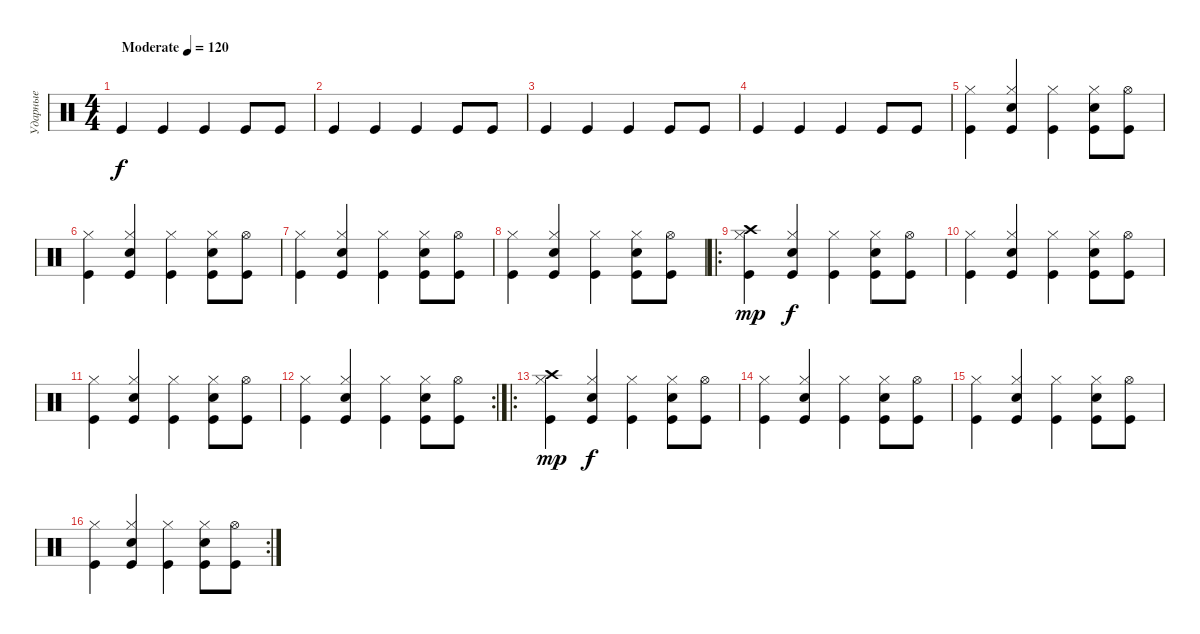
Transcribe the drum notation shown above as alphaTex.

\track ("Ударные" "Ударные") {instrument percussion}
\staff
\articulation defaults
\ts (4 4)
\tempo (120 "Moderate")
\clef neutral
\ks c "Kick (hit)".4{dy f} "Kick (hit)".4 "Kick (hit)".4 "Kick (hit)".8 "Kick (hit)".8
|
"Kick (hit)".4 "Kick (hit)".4 "Kick (hit)".4 "Kick (hit)".8 "Kick (hit)".8 |
"Kick (hit)".4 "Kick (hit)".4 "Kick (hit)".4 "Kick (hit)".8 "Kick (hit)".8 |
"Kick (hit)".4 "Kick (hit)".4 "Kick (hit)".4 "Kick (hit)".8 "Kick (hit)".8 |
("Hi-Hat (closed)" "Kick (hit)").4 ("Hi-Hat (closed)" "Snare (hit) 2" "Kick (hit)").4 ("Hi-Hat (closed)" "Kick (hit)").4 ("Hi-Hat (closed)" "Snare (hit) 2" "Kick (hit)").8 ("Hi-Hat (open)" "Kick (hit)").8 |
("Hi-Hat (closed)" "Kick (hit)").4 ("Hi-Hat (closed)" "Snare (hit) 2" "Kick (hit)").4 ("Hi-Hat (closed)" "Kick (hit)").4 ("Hi-Hat (closed)" "Snare (hit) 2" "Kick (hit)").8 ("Hi-Hat (open)" "Kick (hit)").8 |
("Hi-Hat (closed)" "Kick (hit)").4 ("Hi-Hat (closed)" "Snare (hit) 2" "Kick (hit)").4 ("Hi-Hat (closed)" "Kick (hit)").4 ("Hi-Hat (closed)" "Snare (hit) 2" "Kick (hit)").8 ("Hi-Hat (open)" "Kick (hit)").8 |
("Hi-Hat (closed)" "Kick (hit)").4 ("Hi-Hat (closed)" "Snare (hit) 2" "Kick (hit)").4 ("Hi-Hat (closed)" "Kick (hit)").4 ("Hi-Hat (closed)" "Snare (hit) 2" "Kick (hit)").8 ("Hi-Hat (open)" "Kick (hit)").8 |
\ro
("Crash high (hit)" "Hi-Hat (closed)" "Kick (hit)").4{dy mp} ("Hi-Hat (closed)" "Snare (hit) 2" "Kick (hit)").4{dy f} ("Hi-Hat (closed)" "Kick (hit)").4 ("Hi-Hat (closed)" "Snare (hit) 2" "Kick (hit)").8 ("Hi-Hat (open)" "Kick (hit)").8 |
("Hi-Hat (closed)" "Kick (hit)").4 ("Hi-Hat (closed)" "Snare (hit) 2" "Kick (hit)").4 ("Hi-Hat (closed)" "Kick (hit)").4 ("Hi-Hat (closed)" "Snare (hit) 2" "Kick (hit)").8 ("Hi-Hat (open)" "Kick (hit)").8 |
("Hi-Hat (closed)" "Kick (hit)").4 ("Hi-Hat (closed)" "Snare (hit) 2" "Kick (hit)").4 ("Hi-Hat (closed)" "Kick (hit)").4 ("Hi-Hat (closed)" "Snare (hit) 2" "Kick (hit)").8 ("Hi-Hat (open)" "Kick (hit)").8 |
\rc 2
("Hi-Hat (closed)" "Kick (hit)").4 ("Hi-Hat (closed)" "Snare (hit) 2" "Kick (hit)").4 ("Hi-Hat (closed)" "Kick (hit)").4 ("Hi-Hat (closed)" "Snare (hit) 2" "Kick (hit)").8 ("Hi-Hat (open)" "Kick (hit)").8 |
\ro
("Crash high (hit)" "Hi-Hat (closed)" "Kick (hit)").4{dy mp} ("Hi-Hat (closed)" "Snare (hit) 2" "Kick (hit)").4{dy f} ("Hi-Hat (closed)" "Kick (hit)").4 ("Hi-Hat (closed)" "Snare (hit) 2" "Kick (hit)").8 ("Hi-Hat (open)" "Kick (hit)").8 |
("Hi-Hat (closed)" "Kick (hit)").4 ("Hi-Hat (closed)" "Snare (hit) 2" "Kick (hit)").4 ("Hi-Hat (closed)" "Kick (hit)").4 ("Hi-Hat (closed)" "Snare (hit) 2" "Kick (hit)").8 ("Hi-Hat (open)" "Kick (hit)").8 |
("Hi-Hat (closed)" "Kick (hit)").4 ("Hi-Hat (closed)" "Snare (hit) 2" "Kick (hit)").4 ("Hi-Hat (closed)" "Kick (hit)").4 ("Hi-Hat (closed)" "Snare (hit) 2" "Kick (hit)").8 ("Hi-Hat (open)" "Kick (hit)").8 |
\rc 2
("Hi-Hat (closed)" "Kick (hit)").4 ("Hi-Hat (closed)" "Snare (hit) 2" "Kick (hit)").4 ("Hi-Hat (closed)" "Kick (hit)").4 ("Hi-Hat (closed)" "Snare (hit) 2" "Kick (hit)").8 ("Hi-Hat (open)" "Kick (hit)").8
